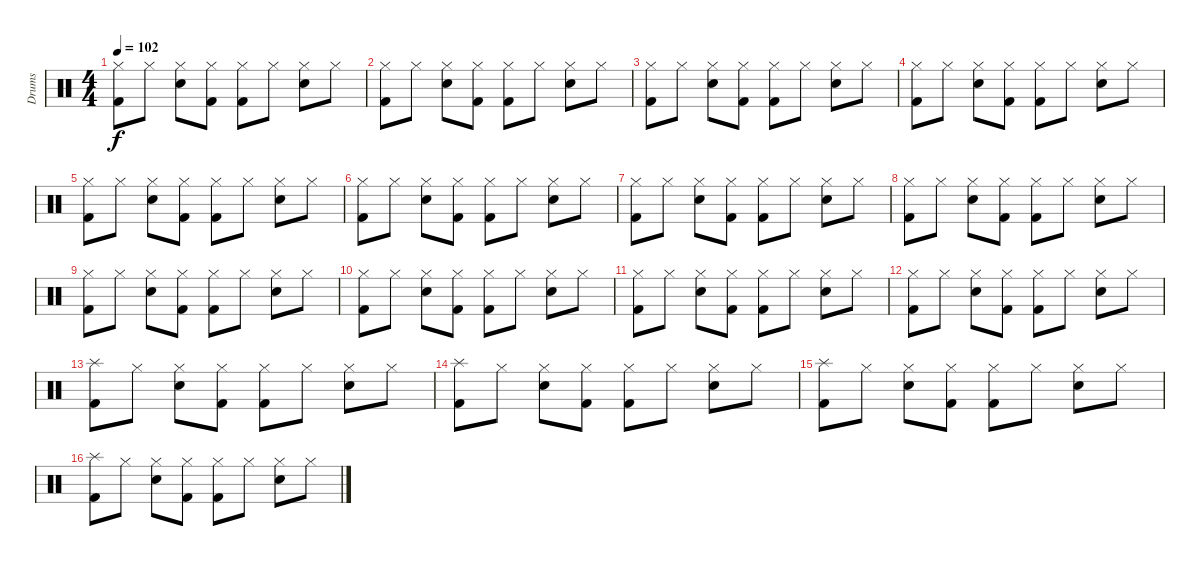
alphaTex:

\track ("Drums" "Drums") {instrument percussion}
\staff {score}
\articulation defaults
\ts (4 4)
\tempo 102
\clef neutral
\ks c
("Hi-Hat (closed)" "Kick (hit) 2").8{dy f} "Hi-Hat (closed)".8 ("Hi-Hat (closed)" "Snare (hit) 2").8 ("Hi-Hat (closed)" "Kick (hit) 2").8 ("Hi-Hat (closed)" "Kick (hit) 2").8 "Hi-Hat (closed)".8 ("Hi-Hat (closed)" "Snare (hit) 2").8 "Hi-Hat (closed)".8 |
("Hi-Hat (closed)" "Kick (hit) 2").8 "Hi-Hat (closed)".8 ("Hi-Hat (closed)" "Snare (hit) 2").8 ("Hi-Hat (closed)" "Kick (hit) 2").8 ("Hi-Hat (closed)" "Kick (hit) 2").8 "Hi-Hat (closed)".8 ("Hi-Hat (closed)" "Snare (hit) 2").8 "Hi-Hat (closed)".8 |
("Hi-Hat (closed)" "Kick (hit) 2").8 "Hi-Hat (closed)".8 ("Hi-Hat (closed)" "Snare (hit) 2").8 ("Hi-Hat (closed)" "Kick (hit) 2").8 ("Hi-Hat (closed)" "Kick (hit) 2").8 "Hi-Hat (closed)".8 ("Hi-Hat (closed)" "Snare (hit) 2").8 "Hi-Hat (closed)".8 |
("Hi-Hat (closed)" "Kick (hit) 2").8 "Hi-Hat (closed)".8 ("Hi-Hat (closed)" "Snare (hit) 2").8 ("Hi-Hat (closed)" "Kick (hit) 2").8 ("Hi-Hat (closed)" "Kick (hit) 2").8 "Hi-Hat (closed)".8 ("Hi-Hat (closed)" "Snare (hit) 2").8 "Hi-Hat (closed)".8 |
("Hi-Hat (closed)" "Kick (hit) 2").8 "Hi-Hat (closed)".8 ("Hi-Hat (closed)" "Snare (hit) 2").8 ("Hi-Hat (closed)" "Kick (hit) 2").8 ("Hi-Hat (closed)" "Kick (hit) 2").8 "Hi-Hat (closed)".8 ("Hi-Hat (closed)" "Snare (hit) 2").8 "Hi-Hat (closed)".8 |
("Hi-Hat (closed)" "Kick (hit) 2").8 "Hi-Hat (closed)".8 ("Hi-Hat (closed)" "Snare (hit) 2").8 ("Hi-Hat (closed)" "Kick (hit) 2").8 ("Hi-Hat (closed)" "Kick (hit) 2").8 "Hi-Hat (closed)".8 ("Hi-Hat (closed)" "Snare (hit) 2").8 "Hi-Hat (closed)".8 |
("Hi-Hat (closed)" "Kick (hit) 2").8 "Hi-Hat (closed)".8 ("Hi-Hat (closed)" "Snare (hit) 2").8 ("Hi-Hat (closed)" "Kick (hit) 2").8 ("Hi-Hat (closed)" "Kick (hit) 2").8 "Hi-Hat (closed)".8 ("Hi-Hat (closed)" "Snare (hit) 2").8 "Hi-Hat (closed)".8 |
("Hi-Hat (closed)" "Kick (hit) 2").8 "Hi-Hat (closed)".8 ("Hi-Hat (closed)" "Snare (hit) 2").8 ("Hi-Hat (closed)" "Kick (hit) 2").8 ("Hi-Hat (closed)" "Kick (hit) 2").8 "Hi-Hat (closed)".8 ("Hi-Hat (closed)" "Snare (hit) 2").8 "Hi-Hat (closed)".8 |
("Hi-Hat (closed)" "Kick (hit) 2").8 "Hi-Hat (closed)".8 ("Hi-Hat (closed)" "Snare (hit) 2").8 ("Hi-Hat (closed)" "Kick (hit) 2").8 ("Hi-Hat (closed)" "Kick (hit) 2").8 "Hi-Hat (closed)".8 ("Hi-Hat (closed)" "Snare (hit) 2").8 "Hi-Hat (closed)".8 |
("Hi-Hat (closed)" "Kick (hit) 2").8 "Hi-Hat (closed)".8 ("Hi-Hat (closed)" "Snare (hit) 2").8 ("Hi-Hat (closed)" "Kick (hit) 2").8 ("Hi-Hat (closed)" "Kick (hit) 2").8 "Hi-Hat (closed)".8 ("Hi-Hat (closed)" "Snare (hit) 2").8 "Hi-Hat (closed)".8 |
("Hi-Hat (closed)" "Kick (hit) 2").8 "Hi-Hat (closed)".8 ("Hi-Hat (closed)" "Snare (hit) 2").8 ("Hi-Hat (closed)" "Kick (hit) 2").8 ("Hi-Hat (closed)" "Kick (hit) 2").8 "Hi-Hat (closed)".8 ("Hi-Hat (closed)" "Snare (hit) 2").8 "Hi-Hat (closed)".8 |
("Hi-Hat (closed)" "Kick (hit) 2").8 "Hi-Hat (closed)".8 ("Hi-Hat (closed)" "Snare (hit) 2").8 ("Hi-Hat (closed)" "Kick (hit) 2").8 ("Hi-Hat (closed)" "Kick (hit) 2").8 "Hi-Hat (closed)".8 ("Hi-Hat (closed)" "Snare (hit) 2").8 "Hi-Hat (closed)".8 |
("Splash (hit)" "Kick (hit) 2").8 "Hi-Hat (closed)".8 ("Hi-Hat (closed)" "Snare (hit) 2").8 ("Hi-Hat (closed)" "Kick (hit) 2").8 ("Hi-Hat (closed)" "Kick (hit) 2").8 "Hi-Hat (closed)".8 ("Hi-Hat (closed)" "Snare (hit) 2").8 "Hi-Hat (closed)".8 |
("Splash (hit)" "Kick (hit) 2").8 "Hi-Hat (closed)".8 ("Hi-Hat (closed)" "Snare (hit) 2").8 ("Hi-Hat (closed)" "Kick (hit) 2").8 ("Hi-Hat (closed)" "Kick (hit) 2").8 "Hi-Hat (closed)".8 ("Hi-Hat (closed)" "Snare (hit) 2").8 "Hi-Hat (closed)".8 |
("Splash (hit)" "Kick (hit) 2").8 "Hi-Hat (closed)".8 ("Hi-Hat (closed)" "Snare (hit) 2").8 ("Hi-Hat (closed)" "Kick (hit) 2").8 ("Hi-Hat (closed)" "Kick (hit) 2").8 "Hi-Hat (closed)".8 ("Hi-Hat (closed)" "Snare (hit) 2").8 "Hi-Hat (closed)".8 |
("Splash (hit)" "Kick (hit) 2").8 "Hi-Hat (closed)".8 ("Hi-Hat (closed)" "Snare (hit) 2").8 ("Hi-Hat (closed)" "Kick (hit) 2").8 ("Hi-Hat (closed)" "Kick (hit) 2").8 "Hi-Hat (closed)".8 ("Hi-Hat (closed)" "Snare (hit) 2").8 "Hi-Hat (closed)".8
